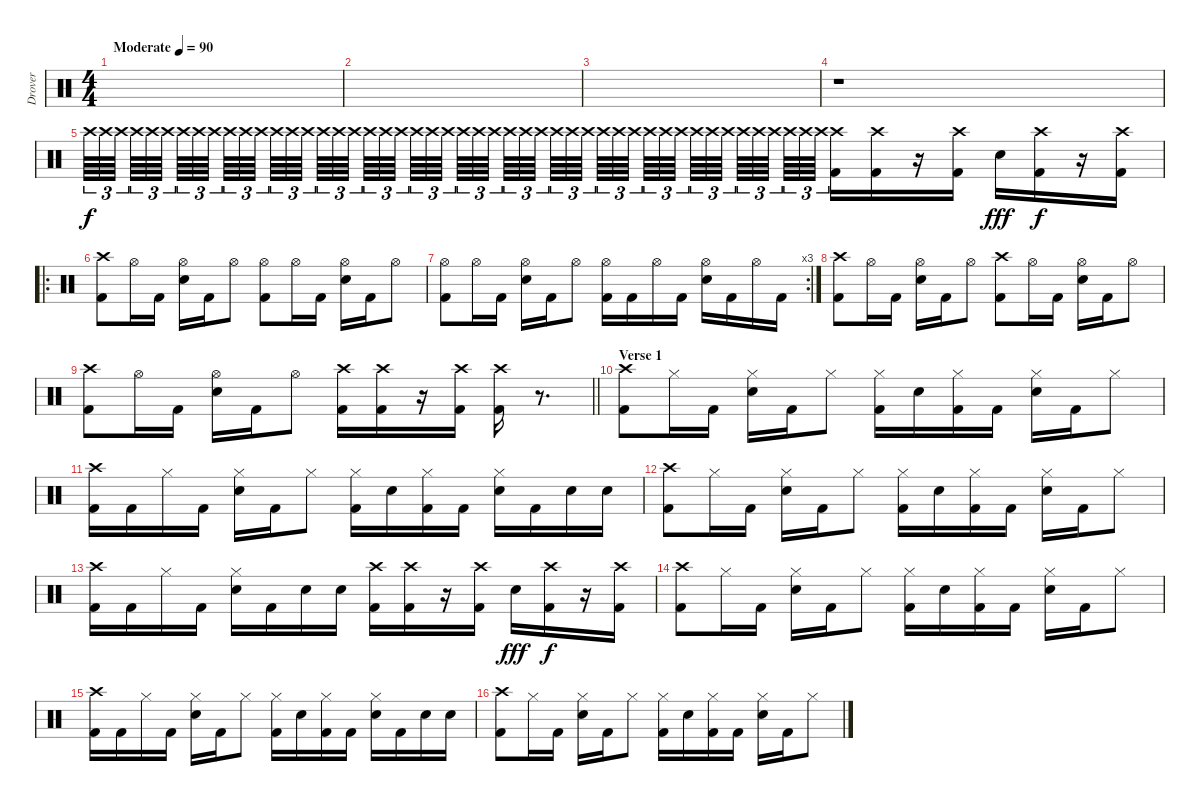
\track ("Drover" "Drover") {instrument percussion}
\staff {score}
\articulation defaults
\ts (4 4)
\tempo (90 "Moderate")
\clef neutral
\ks c
|
|
|
r.1{volume 0} |
"Crash high (hit)".64{tu (3 2) volume 8} "Crash high (hit)".64{tu (3 2)} "Crash high (hit)".64{tu (3 2) beam splitsecondary} "Crash high (hit)".64{tu (3 2)} "Crash high (hit)".64{tu (3 2)} "Crash high (hit)".64{tu (3 2) beam splitsecondary} "Crash high (hit)".64{tu (3 2)} "Crash high (hit)".64{tu (3 2)} "Crash high (hit)".64{tu (3 2) beam splitsecondary} "Crash high (hit)".64{tu (3 2)} "Crash high (hit)".64{tu (3 2)} "Crash high (hit)".64{tu (3 2) beam splitsecondary} "Crash high (hit)".64{tu (3 2)} "Crash high (hit)".64{tu (3 2)} "Crash high (hit)".64{tu (3 2) beam splitsecondary} "Crash high (hit)".64{tu (3 2)} "Crash high (hit)".64{tu (3 2)} "Crash high (hit)".64{tu (3 2) beam splitsecondary} "Crash high (hit)".64{tu (3 2)} "Crash high (hit)".64{tu (3 2)} "Crash high (hit)".64{tu (3 2) beam splitsecondary} "Crash high (hit)".64{tu (3 2)} "Crash high (hit)".64{tu (3 2)} "Crash high (hit)".64{tu (3 2)} "Crash high (hit)".64{tu (3 2)} "Crash high (hit)".64{tu (3 2)} "Crash high (hit)".64{tu (3 2) beam splitsecondary} "Crash high (hit)".64{tu (3 2)} "Crash high (hit)".64{tu (3 2)} "Crash high (hit)".64{tu (3 2) beam splitsecondary} "Crash high (hit)".64{tu (3 2)} "Crash high (hit)".64{tu (3 2)} "Crash high (hit)".64{tu (3 2) beam splitsecondary} "Crash high (hit)".64{tu (3 2)} "Crash high (hit)".64{tu (3 2)} "Crash high (hit)".64{tu (3 2) beam splitsecondary} "Crash high (hit)".64{tu (3 2)} "Crash high (hit)".64{tu (3 2)} "Crash high (hit)".64{tu (3 2) beam splitsecondary} "Crash high (hit)".64{tu (3 2)} "Crash high (hit)".64{tu (3 2)} "Crash high (hit)".64{tu (3 2) beam splitsecondary} "Crash high (hit)".64{tu (3 2)} "Crash high (hit)".64{tu (3 2)} "Crash high (hit)".64{tu (3 2) beam splitsecondary} "Crash high (hit)".64{tu (3 2)} "Crash high (hit)".64{tu (3 2)} "Crash high (hit)".64{tu (3 2)} ("Crash high (hit)" "Kick (hit) 2").16 ("Crash high (hit)" "Kick (hit) 2").16 r.16 ("Crash high (hit)" "Kick (hit) 2").16 "Snare (hit) 2".16{dy fff} ("Crash high (hit)" "Kick (hit) 2").16{dy f} r.16 ("Crash high (hit)" "Kick (hit) 2").16 |
\ro
("Crash high (hit)" "Kick (hit) 2").8 "Hi-Hat (open)".16 "Kick (hit) 2".16 ("Hi-Hat (open)" "Snare (hit) 2").16 "Kick (hit) 2".16 "Hi-Hat (open)".8 ("Hi-Hat (open)" "Kick (hit) 2").8 "Hi-Hat (open)".16 "Kick (hit) 2".16 ("Hi-Hat (open)" "Snare (hit) 2").16 "Kick (hit) 2".16 "Hi-Hat (open)".8 |
\rc 3
("Hi-Hat (open)" "Kick (hit) 2").8 "Hi-Hat (open)".16 "Kick (hit) 2".16 ("Hi-Hat (open)" "Snare (hit) 2").16 "Kick (hit) 2".16 "Hi-Hat (open)".8 ("Hi-Hat (open)" "Kick (hit) 2").16 "Kick (hit) 2".16 "Hi-Hat (open)".16 "Kick (hit) 2".16 ("Hi-Hat (open)" "Snare (hit) 2").16 "Kick (hit) 2".16 "Hi-Hat (open)".16 "Kick (hit) 2".16 |
("Crash high (hit)" "Kick (hit) 2").8 "Hi-Hat (open)".16 "Kick (hit) 2".16 ("Hi-Hat (open)" "Snare (hit) 2").16 "Kick (hit) 2".16 "Hi-Hat (open)".8 ("Crash high (hit)" "Kick (hit) 2").8 "Hi-Hat (open)".16 "Kick (hit) 2".16 ("Hi-Hat (open)" "Snare (hit) 2").16 "Kick (hit) 2".16 "Hi-Hat (open)".8 |
\barLineRight lightlight
("Crash high (hit)" "Kick (hit) 2").8 "Hi-Hat (open)".16 "Kick (hit) 2".16 ("Hi-Hat (open)" "Snare (hit) 2").16 "Kick (hit) 2".16 "Hi-Hat (open)".8 ("Crash high (hit)" "Kick (hit) 2").16 ("Crash high (hit)" "Kick (hit) 2").16 r.16 ("Crash high (hit)" "Kick (hit) 2").16 ("Crash high (hit)" "Kick (hit) 2").16 r.8{d} |
\section ("" "Verse 1")
("Crash high (hit)" "Kick (hit) 2").8 "Hi-Hat (closed)".16 "Kick (hit) 2".16 ("Hi-Hat (closed)" "Snare (hit) 2").16 "Kick (hit) 2".16 "Hi-Hat (closed)".8 ("Hi-Hat (closed)" "Kick (hit) 2").16 "Snare (hit) 2".16 ("Hi-Hat (closed)" "Kick (hit) 2").16 "Kick (hit) 2".16 ("Hi-Hat (closed)" "Snare (hit) 2").16 "Kick (hit) 2".16 "Hi-Hat (closed)".8 |
("Crash high (hit)" "Kick (hit) 2").16 "Kick (hit) 2".16 "Hi-Hat (closed)".16 "Kick (hit) 2".16 ("Hi-Hat (closed)" "Snare (hit) 2").16 "Kick (hit) 2".16 "Hi-Hat (closed)".8 ("Hi-Hat (closed)" "Kick (hit) 2").16 "Snare (hit) 2".16 ("Hi-Hat (closed)" "Kick (hit) 2").16 "Kick (hit) 2".16 ("Hi-Hat (closed)" "Snare (hit) 2").16 "Kick (hit) 2".16 "Snare (hit) 2".16 "Snare (hit) 2".16 |
("Crash high (hit)" "Kick (hit) 2").8 "Hi-Hat (closed)".16 "Kick (hit) 2".16 ("Hi-Hat (closed)" "Snare (hit) 2").16 "Kick (hit) 2".16 "Hi-Hat (closed)".8 ("Hi-Hat (closed)" "Kick (hit) 2").16 "Snare (hit) 2".16 ("Hi-Hat (closed)" "Kick (hit) 2").16 "Kick (hit) 2".16 ("Hi-Hat (closed)" "Snare (hit) 2").16 "Kick (hit) 2".16 "Hi-Hat (closed)".8 |
("Crash high (hit)" "Kick (hit) 2").16 "Kick (hit) 2".16 "Hi-Hat (closed)".16 "Kick (hit) 2".16 ("Hi-Hat (closed)" "Snare (hit) 2").16 "Kick (hit) 2".16 "Snare (hit) 2".16 "Snare (hit) 2".16 ("Crash high (hit)" "Kick (hit) 2").16 ("Crash high (hit)" "Kick (hit) 2").16 r.16 ("Crash high (hit)" "Kick (hit) 2").16 "Snare (hit) 2".16{dy fff} ("Crash high (hit)" "Kick (hit) 2").16{dy f} r.16 ("Crash high (hit)" "Kick (hit) 2").16 |
("Crash high (hit)" "Kick (hit) 2").8 "Hi-Hat (closed)".16 "Kick (hit) 2".16 ("Hi-Hat (closed)" "Snare (hit) 2").16 "Kick (hit) 2".16 "Hi-Hat (closed)".8 ("Hi-Hat (closed)" "Kick (hit) 2").16 "Snare (hit) 2".16 ("Hi-Hat (closed)" "Kick (hit) 2").16 "Kick (hit) 2".16 ("Hi-Hat (closed)" "Snare (hit) 2").16 "Kick (hit) 2".16 "Hi-Hat (closed)".8 |
("Crash high (hit)" "Kick (hit) 2").16 "Kick (hit) 2".16 "Hi-Hat (closed)".16 "Kick (hit) 2".16 ("Hi-Hat (closed)" "Snare (hit) 2").16 "Kick (hit) 2".16 "Hi-Hat (closed)".8 ("Hi-Hat (closed)" "Kick (hit) 2").16 "Snare (hit) 2".16 ("Hi-Hat (closed)" "Kick (hit) 2").16 "Kick (hit) 2".16 ("Hi-Hat (closed)" "Snare (hit) 2").16 "Kick (hit) 2".16 "Snare (hit) 2".16 "Snare (hit) 2".16 |
("Crash high (hit)" "Kick (hit) 2").8 "Hi-Hat (closed)".16 "Kick (hit) 2".16 ("Hi-Hat (closed)" "Snare (hit) 2").16 "Kick (hit) 2".16 "Hi-Hat (closed)".8 ("Hi-Hat (closed)" "Kick (hit) 2").16 "Snare (hit) 2".16 ("Hi-Hat (closed)" "Kick (hit) 2").16 "Kick (hit) 2".16 ("Hi-Hat (closed)" "Snare (hit) 2").16 "Kick (hit) 2".16 "Hi-Hat (closed)".8
